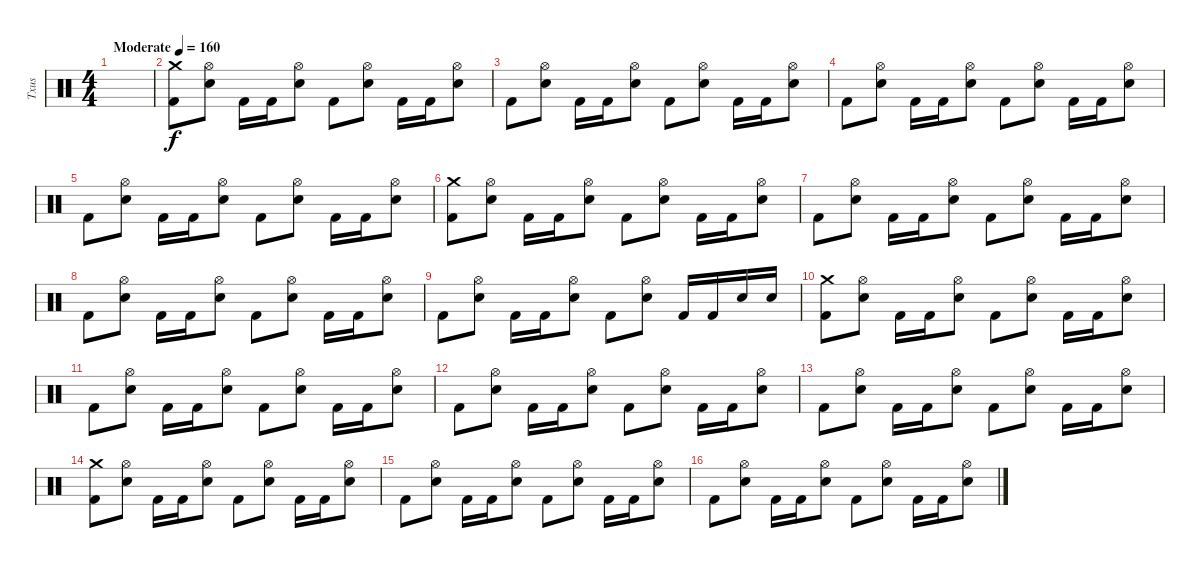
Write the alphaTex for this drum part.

\track ("Txus" "Txus") {instrument percussion}
\staff {score}
\articulation defaults
\ts (4 4)
\tempo (160 "Moderate")
\clef neutral
\ks c
|
("Crash medium (hit)" "Kick (hit) 2").8 ("Hi-Hat (open)" "Snare (hit) 2").8 "Kick (hit) 2".16 "Kick (hit) 2".16 ("Hi-Hat (open)" "Snare (hit) 2").8 "Kick (hit) 2".8 ("Hi-Hat (open)" "Snare (hit) 2").8 "Kick (hit) 2".16 "Kick (hit) 2".16 ("Hi-Hat (open)" "Snare (hit) 2").8 |
"Kick (hit) 2".8 ("Hi-Hat (open)" "Snare (hit) 2").8 "Kick (hit) 2".16 "Kick (hit) 2".16 ("Hi-Hat (open)" "Snare (hit) 2").8 "Kick (hit) 2".8 ("Hi-Hat (open)" "Snare (hit) 2").8 "Kick (hit) 2".16 "Kick (hit) 2".16 ("Hi-Hat (open)" "Snare (hit) 2").8 |
"Kick (hit) 2".8 ("Hi-Hat (open)" "Snare (hit) 2").8 "Kick (hit) 2".16 "Kick (hit) 2".16 ("Hi-Hat (open)" "Snare (hit) 2").8 "Kick (hit) 2".8 ("Hi-Hat (open)" "Snare (hit) 2").8 "Kick (hit) 2".16 "Kick (hit) 2".16 ("Hi-Hat (open)" "Snare (hit) 2").8 |
"Kick (hit) 2".8 ("Hi-Hat (open)" "Snare (hit) 2").8 "Kick (hit) 2".16 "Kick (hit) 2".16 ("Hi-Hat (open)" "Snare (hit) 2").8 "Kick (hit) 2".8 ("Hi-Hat (open)" "Snare (hit) 2").8 "Kick (hit) 2".16 "Kick (hit) 2".16 ("Hi-Hat (open)" "Snare (hit) 2").8 |
("Crash medium (hit)" "Kick (hit) 2").8 ("Hi-Hat (open)" "Snare (hit) 2").8 "Kick (hit) 2".16 "Kick (hit) 2".16 ("Hi-Hat (open)" "Snare (hit) 2").8 "Kick (hit) 2".8 ("Hi-Hat (open)" "Snare (hit) 2").8 "Kick (hit) 2".16 "Kick (hit) 2".16 ("Hi-Hat (open)" "Snare (hit) 2").8 |
"Kick (hit) 2".8 ("Hi-Hat (open)" "Snare (hit) 2").8 "Kick (hit) 2".16 "Kick (hit) 2".16 ("Hi-Hat (open)" "Snare (hit) 2").8 "Kick (hit) 2".8 ("Hi-Hat (open)" "Snare (hit) 2").8 "Kick (hit) 2".16 "Kick (hit) 2".16 ("Hi-Hat (open)" "Snare (hit) 2").8 |
"Kick (hit) 2".8 ("Hi-Hat (open)" "Snare (hit) 2").8 "Kick (hit) 2".16 "Kick (hit) 2".16 ("Hi-Hat (open)" "Snare (hit) 2").8 "Kick (hit) 2".8 ("Hi-Hat (open)" "Snare (hit) 2").8 "Kick (hit) 2".16 "Kick (hit) 2".16 ("Hi-Hat (open)" "Snare (hit) 2").8 |
"Kick (hit) 2".8 ("Hi-Hat (open)" "Snare (hit) 2").8 "Kick (hit) 2".16 "Kick (hit) 2".16 ("Hi-Hat (open)" "Snare (hit) 2").8 "Kick (hit) 2".8 ("Hi-Hat (open)" "Snare (hit) 2").8 "Kick (hit) 2".16 "Kick (hit) 2".16 "Snare (hit) 2".16 "Snare (hit) 2".16 |
("Crash medium (hit)" "Kick (hit) 2").8 ("Hi-Hat (open)" "Snare (hit) 2").8 "Kick (hit) 2".16 "Kick (hit) 2".16 ("Hi-Hat (open)" "Snare (hit) 2").8 "Kick (hit) 2".8 ("Hi-Hat (open)" "Snare (hit) 2").8 "Kick (hit) 2".16 "Kick (hit) 2".16 ("Hi-Hat (open)" "Snare (hit) 2").8 |
"Kick (hit) 2".8 ("Hi-Hat (open)" "Snare (hit) 2").8 "Kick (hit) 2".16 "Kick (hit) 2".16 ("Hi-Hat (open)" "Snare (hit) 2").8 "Kick (hit) 2".8 ("Hi-Hat (open)" "Snare (hit) 2").8 "Kick (hit) 2".16 "Kick (hit) 2".16 ("Hi-Hat (open)" "Snare (hit) 2").8 |
"Kick (hit) 2".8 ("Hi-Hat (open)" "Snare (hit) 2").8 "Kick (hit) 2".16 "Kick (hit) 2".16 ("Hi-Hat (open)" "Snare (hit) 2").8 "Kick (hit) 2".8 ("Hi-Hat (open)" "Snare (hit) 2").8 "Kick (hit) 2".16 "Kick (hit) 2".16 ("Hi-Hat (open)" "Snare (hit) 2").8 |
"Kick (hit) 2".8 ("Hi-Hat (open)" "Snare (hit) 2").8 "Kick (hit) 2".16 "Kick (hit) 2".16 ("Hi-Hat (open)" "Snare (hit) 2").8 "Kick (hit) 2".8 ("Hi-Hat (open)" "Snare (hit) 2").8 "Kick (hit) 2".16 "Kick (hit) 2".16 ("Hi-Hat (open)" "Snare (hit) 2").8 |
("Crash medium (hit)" "Kick (hit) 2").8 ("Hi-Hat (open)" "Snare (hit) 2").8 "Kick (hit) 2".16 "Kick (hit) 2".16 ("Hi-Hat (open)" "Snare (hit) 2").8 "Kick (hit) 2".8 ("Hi-Hat (open)" "Snare (hit) 2").8 "Kick (hit) 2".16 "Kick (hit) 2".16 ("Hi-Hat (open)" "Snare (hit) 2").8 |
"Kick (hit) 2".8 ("Hi-Hat (open)" "Snare (hit) 2").8 "Kick (hit) 2".16 "Kick (hit) 2".16 ("Hi-Hat (open)" "Snare (hit) 2").8 "Kick (hit) 2".8 ("Hi-Hat (open)" "Snare (hit) 2").8 "Kick (hit) 2".16 "Kick (hit) 2".16 ("Hi-Hat (open)" "Snare (hit) 2").8 |
"Kick (hit) 2".8 ("Hi-Hat (open)" "Snare (hit) 2").8 "Kick (hit) 2".16 "Kick (hit) 2".16 ("Hi-Hat (open)" "Snare (hit) 2").8 "Kick (hit) 2".8 ("Hi-Hat (open)" "Snare (hit) 2").8 "Kick (hit) 2".16 "Kick (hit) 2".16 ("Hi-Hat (open)" "Snare (hit) 2").8
